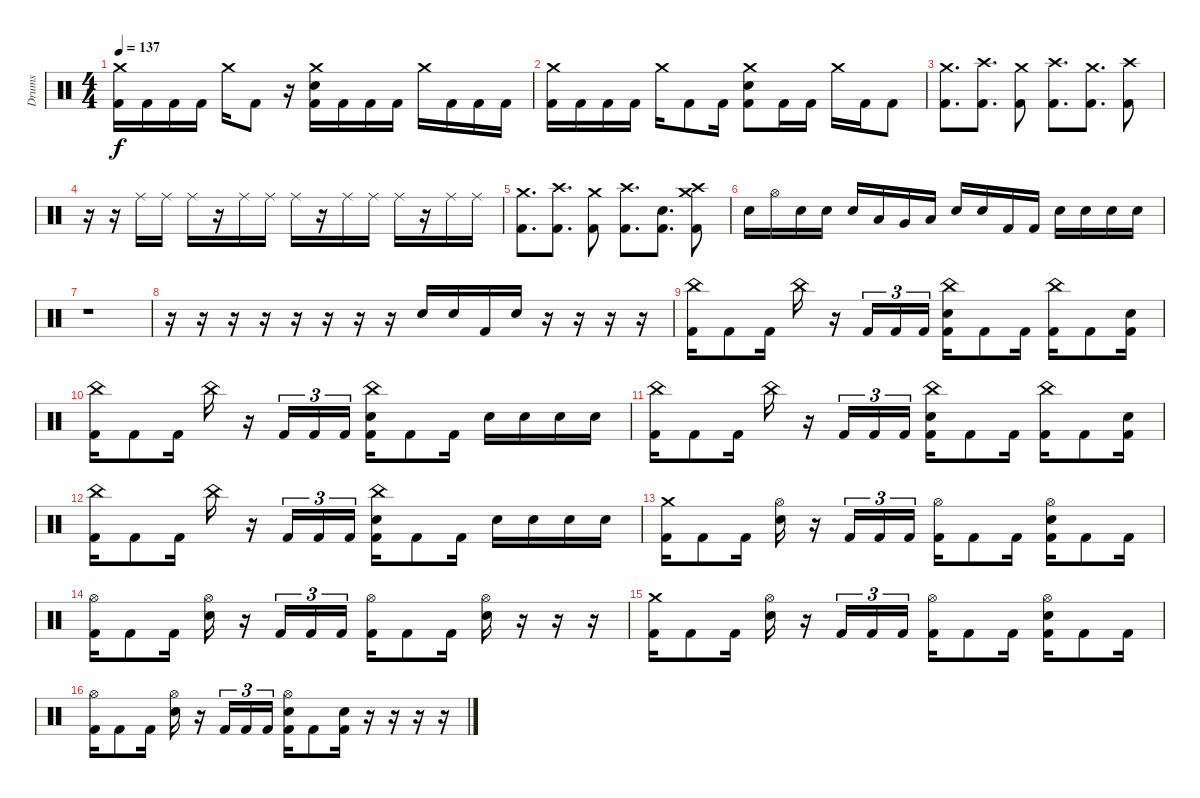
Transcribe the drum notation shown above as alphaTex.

\track ("Drums" "Drums") {instrument percussion}
\staff {score}
\articulation defaults
\ts (4 4)
\tempo 137
\clef neutral
\ks c
("Crash medium (hit)" "Kick (hit) 2").16{dy f} "Kick (hit) 2".16 "Kick (hit) 2".16 "Kick (hit) 2".16 "Crash medium (hit)".16 "Kick (hit) 2".8 r.16 ("Crash medium (hit)" "Electric Snare (hit)" "Kick (hit) 2").16 "Kick (hit) 2".16 "Kick (hit) 2".16 "Kick (hit) 2".16 "Crash medium (hit)".16 "Kick (hit) 2".16 "Kick (hit) 2".16 "Kick (hit) 2".16 |
("Crash medium (hit)" "Kick (hit) 2").16 "Kick (hit) 2".16 "Kick (hit) 2".16 "Kick (hit) 2".16 "Crash medium (hit)".16 "Kick (hit) 2".8 "Kick (hit) 2".16 ("Crash medium (hit)" "Electric Snare (hit)" "Kick (hit) 2").8 "Kick (hit) 2".16 "Kick (hit) 2".16 "Crash medium (hit)".16 "Kick (hit) 2".16 "Kick (hit) 2".8 |
("Crash medium (hit)" "Kick (hit) 2").8{d} ("Crash high (hit)" "Kick (hit) 2").8{d} ("Crash medium (hit)" "Kick (hit) 2").8 ("Crash high (hit)" "Kick (hit) 2").8{d} ("Crash medium (hit)" "Kick (hit) 2").8{d} ("Crash high (hit)" "Kick (hit) 2").8 |
r.16 r.16 "Ride (middle)".16 "Ride (middle)".16 "Ride (middle)".16 r.16 "Ride (middle)".16 "Ride (middle)".16 "Ride (middle)".16 r.16 "Ride (middle)".16 "Ride (middle)".16 "Ride (middle)".16 r.16 "Ride (middle)".16 "Ride (middle)".16 |
("Crash medium (hit)" "Kick (hit) 2").8{d} ("Crash high (hit)" "Kick (hit) 2").8{d} ("Crash medium (hit)" "Kick (hit) 2").8 ("Crash high (hit)" "Kick (hit) 2").8{d} ("Electric Snare (hit)" "Kick (hit) 2").8{d} ("Crash high (hit)" "Crash medium (hit)" "Kick (hit) 2").8 |
"Electric Snare (hit)".16 "Hi-Hat (open)".16 "Electric Snare (hit)".16 "Electric Snare (hit)".16 "Electric Snare (hit)".16 "Low Tom (hit)".16 "Very Low Tom (hit)".16 "Low Floor Tom (hit)".16 "Electric Snare (hit)".16 "Electric Snare (hit)".16 "Kick (hit) 2".16 "Kick (hit) 2".16 "Electric Snare (hit)".16 "Electric Snare (hit)".16 "Electric Snare (hit)".16 "Electric Snare (hit)".16 |
r.1 |
r.16 r.16 r.16 r.16 r.16 r.16 r.16 r.16 "Electric Snare (hit)".16 "Electric Snare (hit)".16 "Kick (hit) 2".16 "Electric Snare (hit)".16 r.16 r.16 r.16 r.16 |
("China (hit)" "Kick (hit) 2").16 "Kick (hit) 2".8 "Kick (hit) 2".16 "China (hit)".16 r.16 "Kick (hit) 2".16{tu (3 2)} "Kick (hit) 2".16{tu (3 2)} "Kick (hit) 2".16{tu (3 2)} ("China (hit)" "Electric Snare (hit)" "Kick (hit) 2").16 "Kick (hit) 2".8 "Kick (hit) 2".16 ("China (hit)" "Kick (hit) 2").16 "Kick (hit) 2".8 ("Electric Snare (hit)" "Kick (hit) 2").16 |
("China (hit)" "Kick (hit) 2").16 "Kick (hit) 2".8 "Kick (hit) 2".16 "China (hit)".16 r.16 "Kick (hit) 2".16{tu (3 2)} "Kick (hit) 2".16{tu (3 2)} "Kick (hit) 2".16{tu (3 2)} ("China (hit)" "Electric Snare (hit)" "Kick (hit) 2").16 "Kick (hit) 2".8 "Kick (hit) 2".16 "Electric Snare (hit)".16 "Electric Snare (hit)".16 "Electric Snare (hit)".16 "Electric Snare (hit)".16 |
("China (hit)" "Kick (hit) 2").16 "Kick (hit) 2".8 "Kick (hit) 2".16 "China (hit)".16 r.16 "Kick (hit) 2".16{tu (3 2)} "Kick (hit) 2".16{tu (3 2)} "Kick (hit) 2".16{tu (3 2)} ("China (hit)" "Electric Snare (hit)" "Kick (hit) 2").16 "Kick (hit) 2".8 "Kick (hit) 2".16 ("China (hit)" "Kick (hit) 2").16 "Kick (hit) 2".8 ("Electric Snare (hit)" "Kick (hit) 2").16 |
("China (hit)" "Kick (hit) 2").16 "Kick (hit) 2".8 "Kick (hit) 2".16 "China (hit)".16 r.16 "Kick (hit) 2".16{tu (3 2)} "Kick (hit) 2".16{tu (3 2)} "Kick (hit) 2".16{tu (3 2)} ("China (hit)" "Electric Snare (hit)" "Kick (hit) 2").16 "Kick (hit) 2".8 "Kick (hit) 2".16 "Electric Snare (hit)".16 "Electric Snare (hit)".16 "Electric Snare (hit)".16 "Electric Snare (hit)".16 |
("Crash medium (hit)" "Kick (hit) 2").16 "Kick (hit) 2".8 "Kick (hit) 2".16 ("Hi-Hat (open)" "Electric Snare (hit)").16 r.16 "Kick (hit) 2".16{tu (3 2)} "Kick (hit) 2".16{tu (3 2)} "Kick (hit) 2".16{tu (3 2)} ("Hi-Hat (open)" "Kick (hit) 2").16 "Kick (hit) 2".8 "Kick (hit) 2".16 ("Hi-Hat (open)" "Electric Snare (hit)" "Kick (hit) 2").16 "Kick (hit) 2".8 "Kick (hit) 2".16 |
("Hi-Hat (open)" "Kick (hit) 2").16 "Kick (hit) 2".8 "Kick (hit) 2".16 ("Hi-Hat (open)" "Electric Snare (hit)").16 r.16 "Kick (hit) 2".16{tu (3 2)} "Kick (hit) 2".16{tu (3 2)} "Kick (hit) 2".16{tu (3 2)} ("Hi-Hat (open)" "Kick (hit) 2").16 "Kick (hit) 2".8 "Kick (hit) 2".16 ("Hi-Hat (open)" "Electric Snare (hit)").16 r.16 r.16 r.16 |
("Crash medium (hit)" "Kick (hit) 2").16 "Kick (hit) 2".8 "Kick (hit) 2".16 ("Hi-Hat (open)" "Electric Snare (hit)").16 r.16 "Kick (hit) 2".16{tu (3 2)} "Kick (hit) 2".16{tu (3 2)} "Kick (hit) 2".16{tu (3 2)} ("Hi-Hat (open)" "Kick (hit) 2").16 "Kick (hit) 2".8 "Kick (hit) 2".16 ("Hi-Hat (open)" "Electric Snare (hit)" "Kick (hit) 2").16 "Kick (hit) 2".8 "Kick (hit) 2".16 |
("Hi-Hat (open)" "Kick (hit) 2").16 "Kick (hit) 2".8 "Kick (hit) 2".16 ("Hi-Hat (open)" "Electric Snare (hit)").16 r.16 "Kick (hit) 2".16{tu (3 2)} "Kick (hit) 2".16{tu (3 2)} "Kick (hit) 2".16{tu (3 2)} ("Hi-Hat (open)" "Electric Snare (hit)" "Kick (hit) 2").16 "Kick (hit) 2".8 ("Electric Snare (hit)" "Kick (hit) 2").16 r.16 r.16 r.16 r.16
